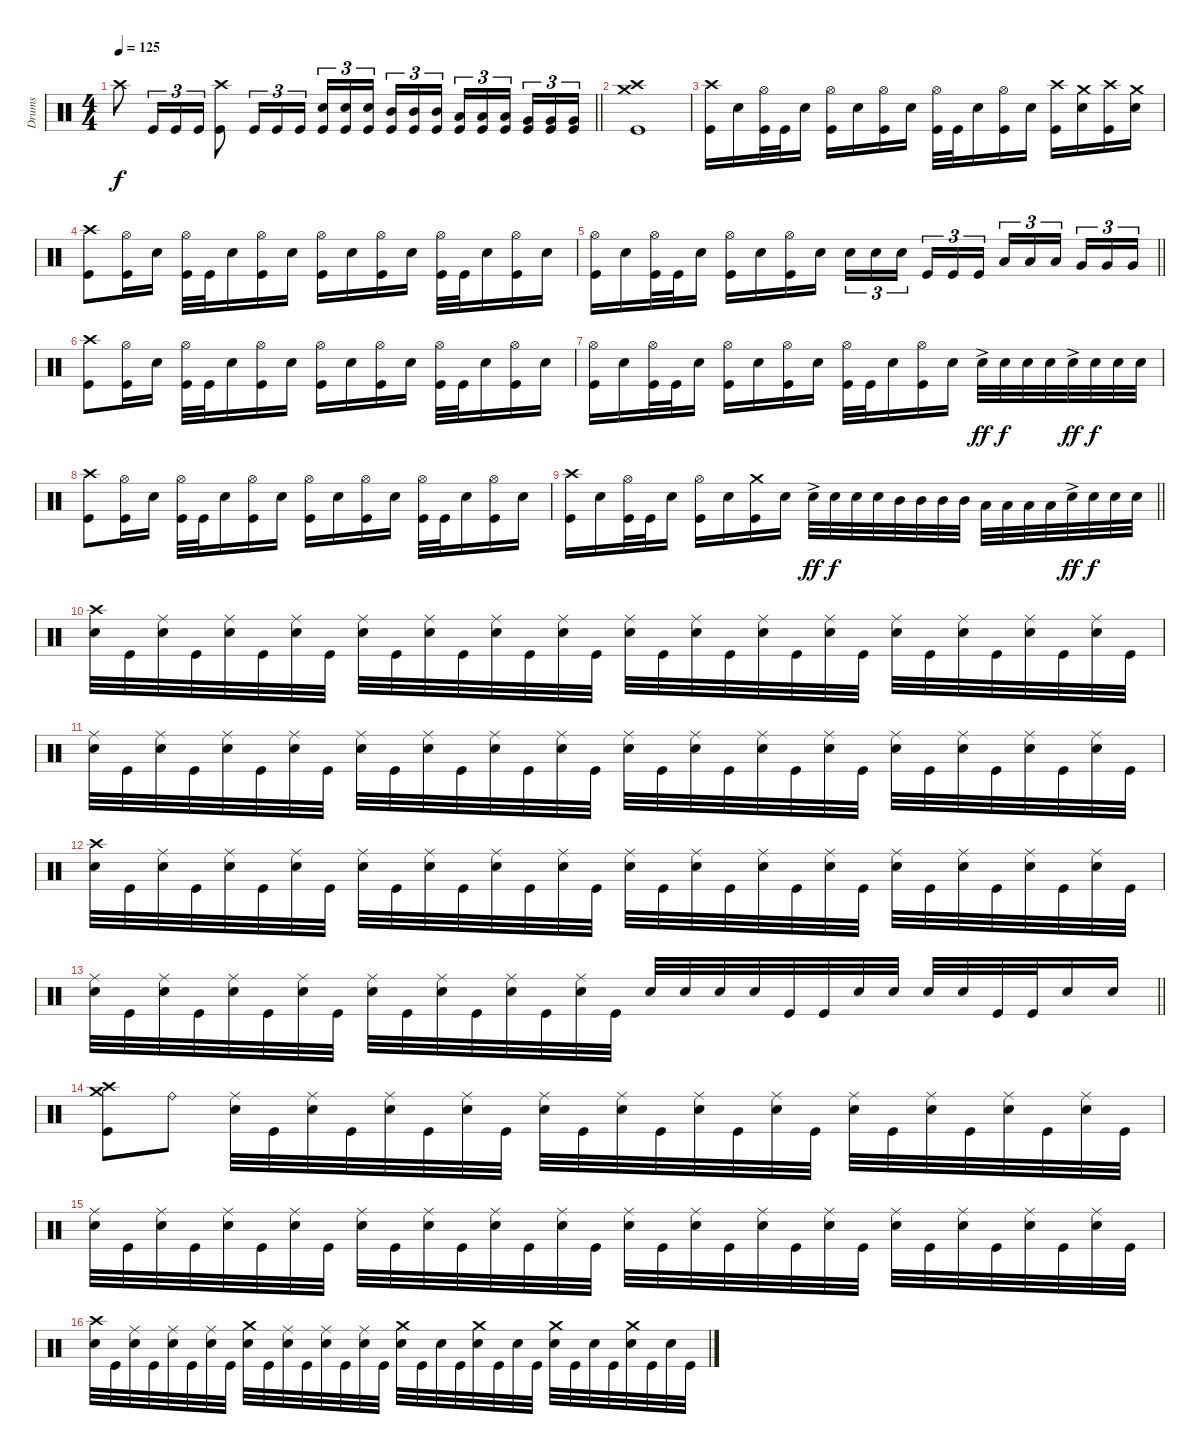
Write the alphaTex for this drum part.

\track ("Drums" "Drums") {instrument percussion}
\staff
\articulation defaults
\ts (4 4)
\tempo 125
\clef neutral
\barLineRight lightlight
\ks c "Crash high (hit)".8{dy f} "Kick (hit)".16{tu (3 2)} "Kick (hit)".16{tu (3 2)} "Kick (hit)".16{tu (3 2)}
("Crash high (hit)" "Kick (hit)").8 "Kick (hit)".16{tu (3 2)} "Kick (hit)".16{tu (3 2)} "Kick (hit)".16{tu (3 2)} ("Electric Snare (hit)" "Kick (hit)").16{tu (3 2)} ("Electric Snare (hit)" "Kick (hit)").16{tu (3 2)} ("Electric Snare (hit)" "Kick (hit)").16{tu (3 2) beam splitsecondary} ("Mid Tom (hit)" "Kick (hit)").16{tu (3 2)} ("Mid Tom (hit)" "Kick (hit)").16{tu (3 2)} ("Mid Tom (hit)" "Kick (hit)").16{tu (3 2)} ("Low Tom (hit)" "Kick (hit)").16{tu (3 2)} ("Low Tom (hit)" "Kick (hit)").16{tu (3 2)} ("Low Tom (hit)" "Kick (hit)").16{tu (3 2) beam splitsecondary} ("Very Low Tom (hit)" "Kick (hit)").16{tu (3 2)} ("Very Low Tom (hit)" "Kick (hit)").16{tu (3 2)} ("Very Low Tom (hit)" "Kick (hit)").16{tu (3 2)} |
\section ("" "")
("Crash high (hit)" "Crash medium (hit)" "Kick (hit)").1 |
("Crash high (hit)" "Kick (hit)").16 "Electric Snare (hit)".16 ("Hi-Hat (open)" "Kick (hit)").32 "Kick (hit)".32 "Electric Snare (hit)".16 ("Hi-Hat (open)" "Kick (hit)").16 "Electric Snare (hit)".16 ("Hi-Hat (open)" "Kick (hit)").16 "Electric Snare (hit)".16 ("Hi-Hat (open)" "Kick (hit)").32 "Kick (hit)".32 "Electric Snare (hit)".16 ("Hi-Hat (open)" "Kick (hit)").16 "Electric Snare (hit)".16 ("Crash high (hit)" "Kick (hit)").16 ("Crash medium (hit)" "Electric Snare (hit)").16 ("Crash high (hit)" "Kick (hit)").16 ("Crash medium (hit)" "Electric Snare (hit)").16 |
("Crash high (hit)" "Kick (hit)").8 ("Hi-Hat (open)" "Kick (hit)").16 "Electric Snare (hit)".16 ("Hi-Hat (open)" "Kick (hit)").32 "Kick (hit)".32 "Electric Snare (hit)".16 ("Hi-Hat (open)" "Kick (hit)").16 "Electric Snare (hit)".16 ("Hi-Hat (open)" "Kick (hit)").16 "Electric Snare (hit)".16 ("Hi-Hat (open)" "Kick (hit)").16 "Electric Snare (hit)".16 ("Hi-Hat (open)" "Kick (hit)").32 "Kick (hit)".32 "Electric Snare (hit)".16 ("Hi-Hat (open)" "Kick (hit)").16 "Electric Snare (hit)".16 |
\barLineRight lightlight
("Hi-Hat (open)" "Kick (hit)").16 "Electric Snare (hit)".16 ("Hi-Hat (open)" "Kick (hit)").32 "Kick (hit)".32 "Electric Snare (hit)".16 ("Hi-Hat (open)" "Kick (hit)").16 "Electric Snare (hit)".16 ("Hi-Hat (open)" "Kick (hit)").16 "Electric Snare (hit)".16 "Electric Snare (hit)".16{tu (3 2)} "Electric Snare (hit)".16{tu (3 2)} "Electric Snare (hit)".16{tu (3 2) beam splitsecondary} "Kick (hit)".16{tu (3 2)} "Kick (hit)".16{tu (3 2)} "Kick (hit)".16{tu (3 2)} "Low Tom (hit)".16{tu (3 2)} "Low Tom (hit)".16{tu (3 2)} "Low Tom (hit)".16{tu (3 2) beam splitsecondary} "Very Low Tom (hit)".16{tu (3 2)} "Very Low Tom (hit)".16{tu (3 2)} "Very Low Tom (hit)".16{tu (3 2)} |
("Crash high (hit)" "Kick (hit)").8 ("Hi-Hat (open)" "Kick (hit)").16 "Electric Snare (hit)".16 ("Hi-Hat (open)" "Kick (hit)").32 "Kick (hit)".32 "Electric Snare (hit)".16 ("Hi-Hat (open)" "Kick (hit)").16 "Electric Snare (hit)".16 ("Hi-Hat (open)" "Kick (hit)").16 "Electric Snare (hit)".16 ("Hi-Hat (open)" "Kick (hit)").16 "Electric Snare (hit)".16 ("Hi-Hat (open)" "Kick (hit)").32 "Kick (hit)".32 "Electric Snare (hit)".16 ("Hi-Hat (open)" "Kick (hit)").16 "Electric Snare (hit)".16 |
("Hi-Hat (open)" "Kick (hit)").16 "Electric Snare (hit)".16 ("Hi-Hat (open)" "Kick (hit)").32 "Kick (hit)".32 "Electric Snare (hit)".16 ("Hi-Hat (open)" "Kick (hit)").16 "Electric Snare (hit)".16 ("Hi-Hat (open)" "Kick (hit)").16 "Electric Snare (hit)".16 ("Hi-Hat (open)" "Kick (hit)").32 "Kick (hit)".32 "Electric Snare (hit)".16 ("Hi-Hat (open)" "Kick (hit)").16 "Electric Snare (hit)".16 "Electric Snare (hit)"{ac}.32{dy ff} "Electric Snare (hit)".32{dy f} "Electric Snare (hit)".32 "Electric Snare (hit)".32 "Electric Snare (hit)"{ac}.32{dy ff} "Electric Snare (hit)".32{dy f} "Electric Snare (hit)".32 "Electric Snare (hit)".32 |
("Crash high (hit)" "Kick (hit)").8 ("Hi-Hat (open)" "Kick (hit)").16 "Electric Snare (hit)".16 ("Hi-Hat (open)" "Kick (hit)").32 "Kick (hit)".32 "Electric Snare (hit)".16 ("Hi-Hat (open)" "Kick (hit)").16 "Electric Snare (hit)".16 ("Hi-Hat (open)" "Kick (hit)").16 "Electric Snare (hit)".16 ("Hi-Hat (open)" "Kick (hit)").16 "Electric Snare (hit)".16 ("Hi-Hat (open)" "Kick (hit)").32 "Kick (hit)".32 "Electric Snare (hit)".16 ("Hi-Hat (open)" "Kick (hit)").16 "Electric Snare (hit)".16 |
\barLineRight lightlight
("Crash high (hit)" "Kick (hit)").16 "Electric Snare (hit)".16 ("Hi-Hat (open)" "Kick (hit)").32 "Kick (hit)".32 "Electric Snare (hit)".16 ("Hi-Hat (open)" "Kick (hit)").16 "Electric Snare (hit)".16 ("Crash medium (hit)" "Kick (hit)").16 "Electric Snare (hit)".16 "Electric Snare (hit)"{ac}.32{dy ff} "Electric Snare (hit)".32{dy f} "Electric Snare (hit)".32 "Electric Snare (hit)".32 "Mid Tom (hit)".32 "Mid Tom (hit)".32 "Mid Tom (hit)".32 "Mid Tom (hit)".32 "Low Tom (hit)".32 "Low Tom (hit)".32 "Low Tom (hit)".32 "Low Tom (hit)".32 "Electric Snare (hit)"{ac}.32{dy ff} "Electric Snare (hit)".32{dy f} "Electric Snare (hit)".32 "Electric Snare (hit)".32 |
\section ("" "")
("Crash high (hit)" "Electric Snare (hit)").32 "Kick (hit)".32 ("Ride (middle)" "Electric Snare (hit)").32 "Kick (hit)".32 ("Ride (middle)" "Electric Snare (hit)").32 "Kick (hit)".32 ("Ride (middle)" "Electric Snare (hit)").32 "Kick (hit)".32 ("Ride (middle)" "Electric Snare (hit)").32 "Kick (hit)".32 ("Ride (middle)" "Electric Snare (hit)").32 "Kick (hit)".32 ("Ride (middle)" "Electric Snare (hit)").32 "Kick (hit)".32 ("Ride (middle)" "Electric Snare (hit)").32 "Kick (hit)".32 ("Ride (middle)" "Electric Snare (hit)").32 "Kick (hit)".32 ("Ride (middle)" "Electric Snare (hit)").32 "Kick (hit)".32 ("Ride (middle)" "Electric Snare (hit)").32 "Kick (hit)".32 ("Ride (middle)" "Electric Snare (hit)").32 "Kick (hit)".32 ("Ride (middle)" "Electric Snare (hit)").32 "Kick (hit)".32 ("Ride (middle)" "Electric Snare (hit)").32 "Kick (hit)".32 ("Ride (middle)" "Electric Snare (hit)").32 "Kick (hit)".32 ("Ride (middle)" "Electric Snare (hit)").32 "Kick (hit)".32 |
("Ride (middle)" "Electric Snare (hit)").32 "Kick (hit)".32 ("Ride (middle)" "Electric Snare (hit)").32 "Kick (hit)".32 ("Ride (middle)" "Electric Snare (hit)").32 "Kick (hit)".32 ("Ride (middle)" "Electric Snare (hit)").32 "Kick (hit)".32 ("Ride (middle)" "Electric Snare (hit)").32 "Kick (hit)".32 ("Ride (middle)" "Electric Snare (hit)").32 "Kick (hit)".32 ("Ride (middle)" "Electric Snare (hit)").32 "Kick (hit)".32 ("Ride (middle)" "Electric Snare (hit)").32 "Kick (hit)".32 ("Ride (middle)" "Electric Snare (hit)").32 "Kick (hit)".32 ("Ride (middle)" "Electric Snare (hit)").32 "Kick (hit)".32 ("Ride (middle)" "Electric Snare (hit)").32 "Kick (hit)".32 ("Ride (middle)" "Electric Snare (hit)").32 "Kick (hit)".32 ("Ride (middle)" "Electric Snare (hit)").32 "Kick (hit)".32 ("Ride (middle)" "Electric Snare (hit)").32 "Kick (hit)".32 ("Ride (middle)" "Electric Snare (hit)").32 "Kick (hit)".32 ("Ride (middle)" "Electric Snare (hit)").32 "Kick (hit)".32 |
("Crash high (hit)" "Electric Snare (hit)").32 "Kick (hit)".32 ("Ride (middle)" "Electric Snare (hit)").32 "Kick (hit)".32 ("Ride (middle)" "Electric Snare (hit)").32 "Kick (hit)".32 ("Ride (middle)" "Electric Snare (hit)").32 "Kick (hit)".32 ("Ride (middle)" "Electric Snare (hit)").32 "Kick (hit)".32 ("Ride (middle)" "Electric Snare (hit)").32 "Kick (hit)".32 ("Ride (middle)" "Electric Snare (hit)").32 "Kick (hit)".32 ("Ride (middle)" "Electric Snare (hit)").32 "Kick (hit)".32 ("Ride (middle)" "Electric Snare (hit)").32 "Kick (hit)".32 ("Ride (middle)" "Electric Snare (hit)").32 "Kick (hit)".32 ("Ride (middle)" "Electric Snare (hit)").32 "Kick (hit)".32 ("Ride (middle)" "Electric Snare (hit)").32 "Kick (hit)".32 ("Ride (middle)" "Electric Snare (hit)").32 "Kick (hit)".32 ("Ride (middle)" "Electric Snare (hit)").32 "Kick (hit)".32 ("Ride (middle)" "Electric Snare (hit)").32 "Kick (hit)".32 ("Ride (middle)" "Electric Snare (hit)").32 "Kick (hit)".32 |
\barLineRight lightlight
("Ride (middle)" "Electric Snare (hit)").32 "Kick (hit)".32 ("Ride (middle)" "Electric Snare (hit)").32 "Kick (hit)".32 ("Ride (middle)" "Electric Snare (hit)").32 "Kick (hit)".32 ("Ride (middle)" "Electric Snare (hit)").32 "Kick (hit)".32 ("Ride (middle)" "Electric Snare (hit)").32 "Kick (hit)".32 ("Ride (middle)" "Electric Snare (hit)").32 "Kick (hit)".32 ("Ride (middle)" "Electric Snare (hit)").32 "Kick (hit)".32 ("Ride (middle)" "Electric Snare (hit)").32 "Kick (hit)".32 "Electric Snare (hit)".32 "Electric Snare (hit)".32 "Electric Snare (hit)".32 "Electric Snare (hit)".32 "Kick (hit)".32 "Kick (hit)".32 "Electric Snare (hit)".32 "Electric Snare (hit)".32 "Electric Snare (hit)".32 "Electric Snare (hit)".32 "Kick (hit)".32 "Kick (hit)".32 "Electric Snare (hit)".16 "Electric Snare (hit)".16 |
("Crash high (hit)" "Crash medium (hit)" "Kick (hit)").8 "Ride (bell)".8 ("Ride (middle)" "Electric Snare (hit)").32 "Kick (hit)".32 ("Ride (middle)" "Electric Snare (hit)").32 "Kick (hit)".32 ("Ride (middle)" "Electric Snare (hit)").32 "Kick (hit)".32 ("Ride (middle)" "Electric Snare (hit)").32 "Kick (hit)".32 ("Ride (middle)" "Electric Snare (hit)").32 "Kick (hit)".32 ("Ride (middle)" "Electric Snare (hit)").32 "Kick (hit)".32 ("Ride (middle)" "Electric Snare (hit)").32 "Kick (hit)".32 ("Ride (middle)" "Electric Snare (hit)").32 "Kick (hit)".32 ("Ride (middle)" "Electric Snare (hit)").32 "Kick (hit)".32 ("Ride (middle)" "Electric Snare (hit)").32 "Kick (hit)".32 ("Ride (middle)" "Electric Snare (hit)").32 "Kick (hit)".32 ("Ride (middle)" "Electric Snare (hit)").32 "Kick (hit)".32 |
("Ride (middle)" "Electric Snare (hit)").32 "Kick (hit)".32 ("Ride (middle)" "Electric Snare (hit)").32 "Kick (hit)".32 ("Ride (middle)" "Electric Snare (hit)").32 "Kick (hit)".32 ("Ride (middle)" "Electric Snare (hit)").32 "Kick (hit)".32 ("Ride (middle)" "Electric Snare (hit)").32 "Kick (hit)".32 ("Ride (middle)" "Electric Snare (hit)").32 "Kick (hit)".32 ("Ride (middle)" "Electric Snare (hit)").32 "Kick (hit)".32 ("Ride (middle)" "Electric Snare (hit)").32 "Kick (hit)".32 ("Ride (middle)" "Electric Snare (hit)").32 "Kick (hit)".32 ("Ride (middle)" "Electric Snare (hit)").32 "Kick (hit)".32 ("Ride (middle)" "Electric Snare (hit)").32 "Kick (hit)".32 ("Ride (middle)" "Electric Snare (hit)").32 "Kick (hit)".32 ("Ride (middle)" "Electric Snare (hit)").32 "Kick (hit)".32 ("Ride (middle)" "Electric Snare (hit)").32 "Kick (hit)".32 ("Ride (middle)" "Electric Snare (hit)").32 "Kick (hit)".32 ("Ride (middle)" "Electric Snare (hit)").32 "Kick (hit)".32 |
("Crash high (hit)" "Electric Snare (hit)").32 "Kick (hit)".32 ("Ride (middle)" "Electric Snare (hit)").32 "Kick (hit)".32 ("Ride (middle)" "Electric Snare (hit)").32 "Kick (hit)".32 ("Ride (middle)" "Electric Snare (hit)").32 "Kick (hit)".32 ("Crash medium (hit)" "Electric Snare (hit)").32 "Kick (hit)".32 ("Ride (middle)" "Electric Snare (hit)").32 "Kick (hit)".32 ("Ride (middle)" "Electric Snare (hit)").32 "Kick (hit)".32 ("Ride (middle)" "Electric Snare (hit)").32 "Kick (hit)".32 ("Crash medium (hit)" "Electric Snare (hit)").32 "Kick (hit)".32 "Electric Snare (hit)".32 "Kick (hit)".32 ("Crash medium (hit)" "Electric Snare (hit)").32 "Kick (hit)".32 "Electric Snare (hit)".32 "Kick (hit)".32 ("Crash medium (hit)" "Electric Snare (hit)").32 "Kick (hit)".32 "Electric Snare (hit)".32 "Kick (hit)".32 ("Crash medium (hit)" "Electric Snare (hit)").32 "Kick (hit)".32 "Electric Snare (hit)".32 "Kick (hit)".32
